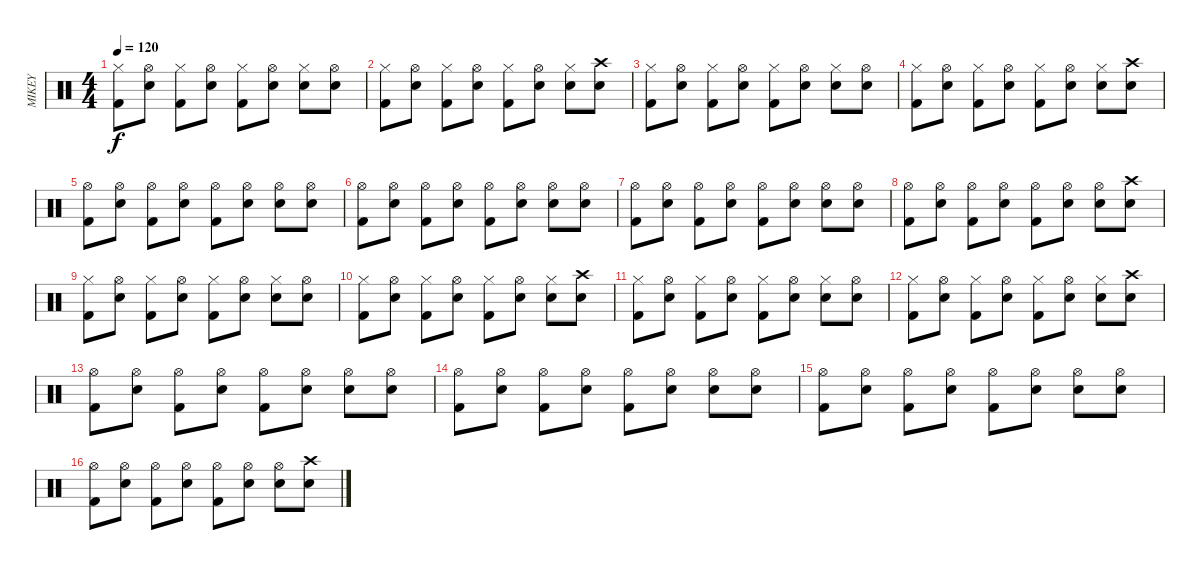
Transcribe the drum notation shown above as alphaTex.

\track ("MIKEY" "MIKEY") {instrument percussion}
\staff {score}
\articulation defaults
\ts (4 4)
\tempo 120
\clef neutral
\ks c
("Hi-Hat (closed)" "Kick (hit) 2").8{dy f} ("Hi-Hat (open)" "Snare (hit) 2").8 ("Hi-Hat (closed)" "Kick (hit) 2").8 ("Hi-Hat (open)" "Snare (hit) 2").8 ("Hi-Hat (closed)" "Kick (hit) 2").8 ("Hi-Hat (open)" "Snare (hit) 2").8 ("Hi-Hat (closed)" "Snare (hit) 2").8 ("Hi-Hat (open)" "Snare (hit) 2").8 |
("Hi-Hat (closed)" "Kick (hit) 2").8 ("Hi-Hat (open)" "Snare (hit) 2").8 ("Hi-Hat (closed)" "Kick (hit) 2").8 ("Hi-Hat (open)" "Snare (hit) 2").8 ("Hi-Hat (closed)" "Kick (hit) 2").8 ("Hi-Hat (open)" "Snare (hit) 2").8 ("Hi-Hat (closed)" "Snare (hit) 2").8 ("Crash high (hit)" "Snare (hit) 2").8 |
("Hi-Hat (closed)" "Kick (hit) 2").8 ("Hi-Hat (open)" "Snare (hit) 2").8 ("Hi-Hat (closed)" "Kick (hit) 2").8 ("Hi-Hat (open)" "Snare (hit) 2").8 ("Hi-Hat (closed)" "Kick (hit) 2").8 ("Hi-Hat (open)" "Snare (hit) 2").8 ("Hi-Hat (closed)" "Snare (hit) 2").8 ("Hi-Hat (open)" "Snare (hit) 2").8 |
("Hi-Hat (closed)" "Kick (hit) 2").8 ("Hi-Hat (open)" "Snare (hit) 2").8 ("Hi-Hat (closed)" "Kick (hit) 2").8 ("Hi-Hat (open)" "Snare (hit) 2").8 ("Hi-Hat (closed)" "Kick (hit) 2").8 ("Hi-Hat (open)" "Snare (hit) 2").8 ("Hi-Hat (closed)" "Snare (hit) 2").8 ("Crash high (hit)" "Snare (hit) 2").8 |
("Hi-Hat (open)" "Kick (hit) 2").8 ("Hi-Hat (open)" "Snare (hit) 2").8 ("Hi-Hat (open)" "Kick (hit) 2").8 ("Hi-Hat (open)" "Snare (hit) 2").8 ("Hi-Hat (open)" "Kick (hit) 2").8 ("Hi-Hat (open)" "Snare (hit) 2").8 ("Hi-Hat (open)" "Snare (hit) 2").8 ("Hi-Hat (open)" "Snare (hit) 2").8 |
("Hi-Hat (open)" "Kick (hit) 2").8 ("Hi-Hat (open)" "Snare (hit) 2").8 ("Hi-Hat (open)" "Kick (hit) 2").8 ("Hi-Hat (open)" "Snare (hit) 2").8 ("Hi-Hat (open)" "Kick (hit) 2").8 ("Hi-Hat (open)" "Snare (hit) 2").8 ("Hi-Hat (open)" "Snare (hit) 2").8 ("Hi-Hat (open)" "Snare (hit) 2").8 |
("Hi-Hat (open)" "Kick (hit) 2").8 ("Hi-Hat (open)" "Snare (hit) 2").8 ("Hi-Hat (open)" "Kick (hit) 2").8 ("Hi-Hat (open)" "Snare (hit) 2").8 ("Hi-Hat (open)" "Kick (hit) 2").8 ("Hi-Hat (open)" "Snare (hit) 2").8 ("Hi-Hat (open)" "Snare (hit) 2").8 ("Hi-Hat (open)" "Snare (hit) 2").8 |
("Hi-Hat (open)" "Kick (hit) 2").8 ("Hi-Hat (open)" "Snare (hit) 2").8 ("Hi-Hat (open)" "Kick (hit) 2").8 ("Hi-Hat (open)" "Snare (hit) 2").8 ("Hi-Hat (open)" "Kick (hit) 2").8 ("Hi-Hat (open)" "Snare (hit) 2").8 ("Hi-Hat (open)" "Snare (hit) 2").8 ("Crash high (hit)" "Snare (hit) 2").8 |
("Hi-Hat (closed)" "Kick (hit) 2").8 ("Hi-Hat (open)" "Snare (hit) 2").8 ("Hi-Hat (closed)" "Kick (hit) 2").8 ("Hi-Hat (open)" "Snare (hit) 2").8 ("Hi-Hat (closed)" "Kick (hit) 2").8 ("Hi-Hat (open)" "Snare (hit) 2").8 ("Hi-Hat (closed)" "Snare (hit) 2").8 ("Hi-Hat (open)" "Snare (hit) 2").8 |
("Hi-Hat (closed)" "Kick (hit) 2").8 ("Hi-Hat (open)" "Snare (hit) 2").8 ("Hi-Hat (closed)" "Kick (hit) 2").8 ("Hi-Hat (open)" "Snare (hit) 2").8 ("Hi-Hat (closed)" "Kick (hit) 2").8 ("Hi-Hat (open)" "Snare (hit) 2").8 ("Hi-Hat (closed)" "Snare (hit) 2").8 ("Crash high (hit)" "Snare (hit) 2").8 |
("Hi-Hat (closed)" "Kick (hit) 2").8 ("Hi-Hat (open)" "Snare (hit) 2").8 ("Hi-Hat (closed)" "Kick (hit) 2").8 ("Hi-Hat (open)" "Snare (hit) 2").8 ("Hi-Hat (closed)" "Kick (hit) 2").8 ("Hi-Hat (open)" "Snare (hit) 2").8 ("Hi-Hat (closed)" "Snare (hit) 2").8 ("Hi-Hat (open)" "Snare (hit) 2").8 |
("Hi-Hat (closed)" "Kick (hit) 2").8 ("Hi-Hat (open)" "Snare (hit) 2").8 ("Hi-Hat (closed)" "Kick (hit) 2").8 ("Hi-Hat (open)" "Snare (hit) 2").8 ("Hi-Hat (closed)" "Kick (hit) 2").8 ("Hi-Hat (open)" "Snare (hit) 2").8 ("Hi-Hat (closed)" "Snare (hit) 2").8 ("Crash high (hit)" "Snare (hit) 2").8 |
("Hi-Hat (open)" "Kick (hit) 2").8 ("Hi-Hat (open)" "Snare (hit) 2").8 ("Hi-Hat (open)" "Kick (hit) 2").8 ("Hi-Hat (open)" "Snare (hit) 2").8 ("Hi-Hat (open)" "Kick (hit) 2").8 ("Hi-Hat (open)" "Snare (hit) 2").8 ("Hi-Hat (open)" "Snare (hit) 2").8 ("Hi-Hat (open)" "Snare (hit) 2").8 |
("Hi-Hat (open)" "Kick (hit) 2").8 ("Hi-Hat (open)" "Snare (hit) 2").8 ("Hi-Hat (open)" "Kick (hit) 2").8 ("Hi-Hat (open)" "Snare (hit) 2").8 ("Hi-Hat (open)" "Kick (hit) 2").8 ("Hi-Hat (open)" "Snare (hit) 2").8 ("Hi-Hat (open)" "Snare (hit) 2").8 ("Hi-Hat (open)" "Snare (hit) 2").8 |
("Hi-Hat (open)" "Kick (hit) 2").8 ("Hi-Hat (open)" "Snare (hit) 2").8 ("Hi-Hat (open)" "Kick (hit) 2").8 ("Hi-Hat (open)" "Snare (hit) 2").8 ("Hi-Hat (open)" "Kick (hit) 2").8 ("Hi-Hat (open)" "Snare (hit) 2").8 ("Hi-Hat (open)" "Snare (hit) 2").8 ("Hi-Hat (open)" "Snare (hit) 2").8 |
("Hi-Hat (open)" "Kick (hit) 2").8 ("Hi-Hat (open)" "Snare (hit) 2").8 ("Hi-Hat (open)" "Kick (hit) 2").8 ("Hi-Hat (open)" "Snare (hit) 2").8 ("Hi-Hat (open)" "Kick (hit) 2").8 ("Hi-Hat (open)" "Snare (hit) 2").8 ("Hi-Hat (open)" "Snare (hit) 2").8 ("Crash high (hit)" "Snare (hit) 2").8
